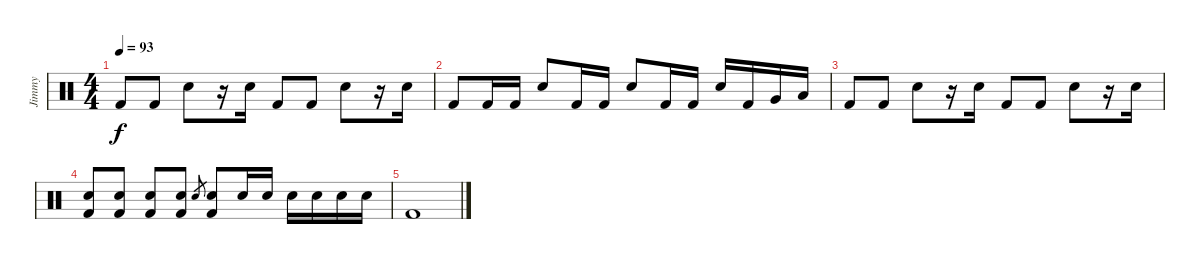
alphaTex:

\track ("Jimmy" "Jimmy") {instrument percussion}
\staff {score}
\articulation defaults
\ts (4 4)
\tempo 93
\clef neutral
\ks c "Kick (hit) 2".8{dy f} "Kick (hit) 2".8 "Snare (hit) 2".8
r.16 "Snare (hit) 2".16 "Kick (hit) 2".8 "Kick (hit) 2".8 "Snare (hit) 2".8 r.16 "Snare (hit) 2".16 |
"Kick (hit) 2".8 "Kick (hit) 2".16 "Kick (hit) 2".16 "Snare (hit) 2".8 "Kick (hit) 2".16 "Kick (hit) 2".16 "Snare (hit) 2".8 "Kick (hit) 2".16 "Kick (hit) 2".16 "Snare (hit) 2".16 "Kick (hit) 2".16 "Very Low Tom (hit)".16 "Low Floor Tom (hit)".16 |
"Kick (hit) 2".8 "Kick (hit) 2".8 "Snare (hit) 2".8 r.16 "Snare (hit) 2".16 "Kick (hit) 2".8 "Kick (hit) 2".8 "Snare (hit) 2".8 r.16 "Snare (hit) 2".16 |
("Snare (hit) 2" "Kick (hit) 2").8 ("Snare (hit) 2" "Kick (hit) 2").8 ("Snare (hit) 2" "Kick (hit) 2").8 ("Snare (hit) 2" "Kick (hit) 2").8 "Snare (hit) 2".8{gr} ("Snare (hit) 2" "Kick (hit) 2").8 "Snare (hit) 2".16 "Snare (hit) 2".16 "Snare (hit) 2".16 "Snare (hit) 2".16 "Snare (hit) 2".16 "Snare (hit) 2".16 |
"Kick (hit) 2".1
